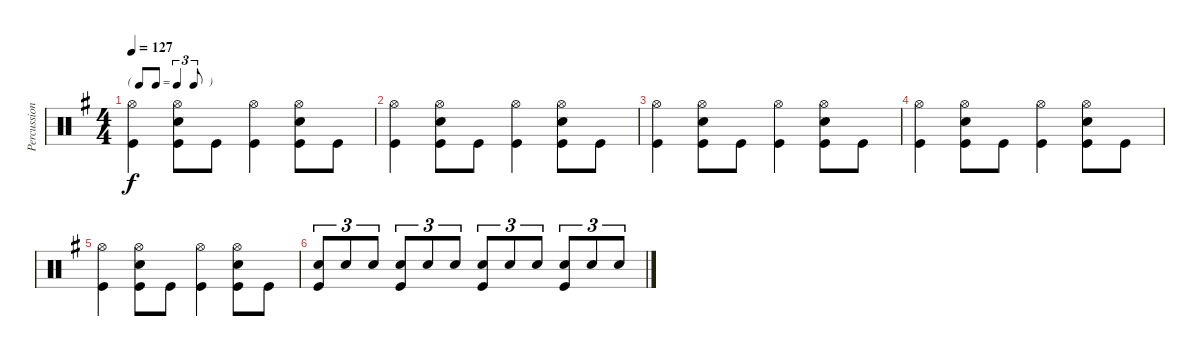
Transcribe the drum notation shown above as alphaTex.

\track ("Percussion" "Percussion") {instrument percussion}
\staff {score}
\articulation defaults
\ts (4 4)
\tf triplet8th
\tempo 127
\clef neutral
\ks g
("Hi-Hat (open)" "Kick (hit)").4{dy f} ("Hi-Hat (open)" "Snare (hit) 2" "Kick (hit)").8 "Kick (hit)".8 ("Hi-Hat (open)" "Kick (hit)").4 ("Hi-Hat (open)" "Snare (hit) 2" "Kick (hit)").8 "Kick (hit)".8 |
("Hi-Hat (open)" "Kick (hit)").4 ("Hi-Hat (open)" "Snare (hit) 2" "Kick (hit)").8 "Kick (hit)".8 ("Hi-Hat (open)" "Kick (hit)").4 ("Hi-Hat (open)" "Snare (hit) 2" "Kick (hit)").8 "Kick (hit)".8 |
("Hi-Hat (open)" "Kick (hit)").4 ("Hi-Hat (open)" "Snare (hit) 2" "Kick (hit)").8 "Kick (hit)".8 ("Hi-Hat (open)" "Kick (hit)").4 ("Hi-Hat (open)" "Snare (hit) 2" "Kick (hit)").8 "Kick (hit)".8 |
("Hi-Hat (open)" "Kick (hit)").4 ("Hi-Hat (open)" "Snare (hit) 2" "Kick (hit)").8 "Kick (hit)".8 ("Hi-Hat (open)" "Kick (hit)").4 ("Hi-Hat (open)" "Snare (hit) 2" "Kick (hit)").8 "Kick (hit)".8 |
("Hi-Hat (open)" "Kick (hit)").4 ("Hi-Hat (open)" "Snare (hit) 2" "Kick (hit)").8 "Kick (hit)".8 ("Hi-Hat (open)" "Kick (hit)").4 ("Hi-Hat (open)" "Snare (hit) 2" "Kick (hit)").8 "Kick (hit)".8 |
("Snare (hit) 2" "Kick (hit)").8{tu (3 2)} "Snare (hit) 2".8{tu (3 2)} "Snare (hit) 2".8{tu (3 2)} ("Snare (hit) 2" "Kick (hit)").8{tu (3 2)} "Snare (hit) 2".8{tu (3 2)} "Snare (hit) 2".8{tu (3 2)} ("Snare (hit) 2" "Kick (hit)").8{tu (3 2)} "Snare (hit) 2".8{tu (3 2)} "Snare (hit) 2".8{tu (3 2)} ("Snare (hit) 2" "Kick (hit)").8{tu (3 2)} "Snare (hit) 2".8{tu (3 2)} "Snare (hit) 2".8{tu (3 2)}
